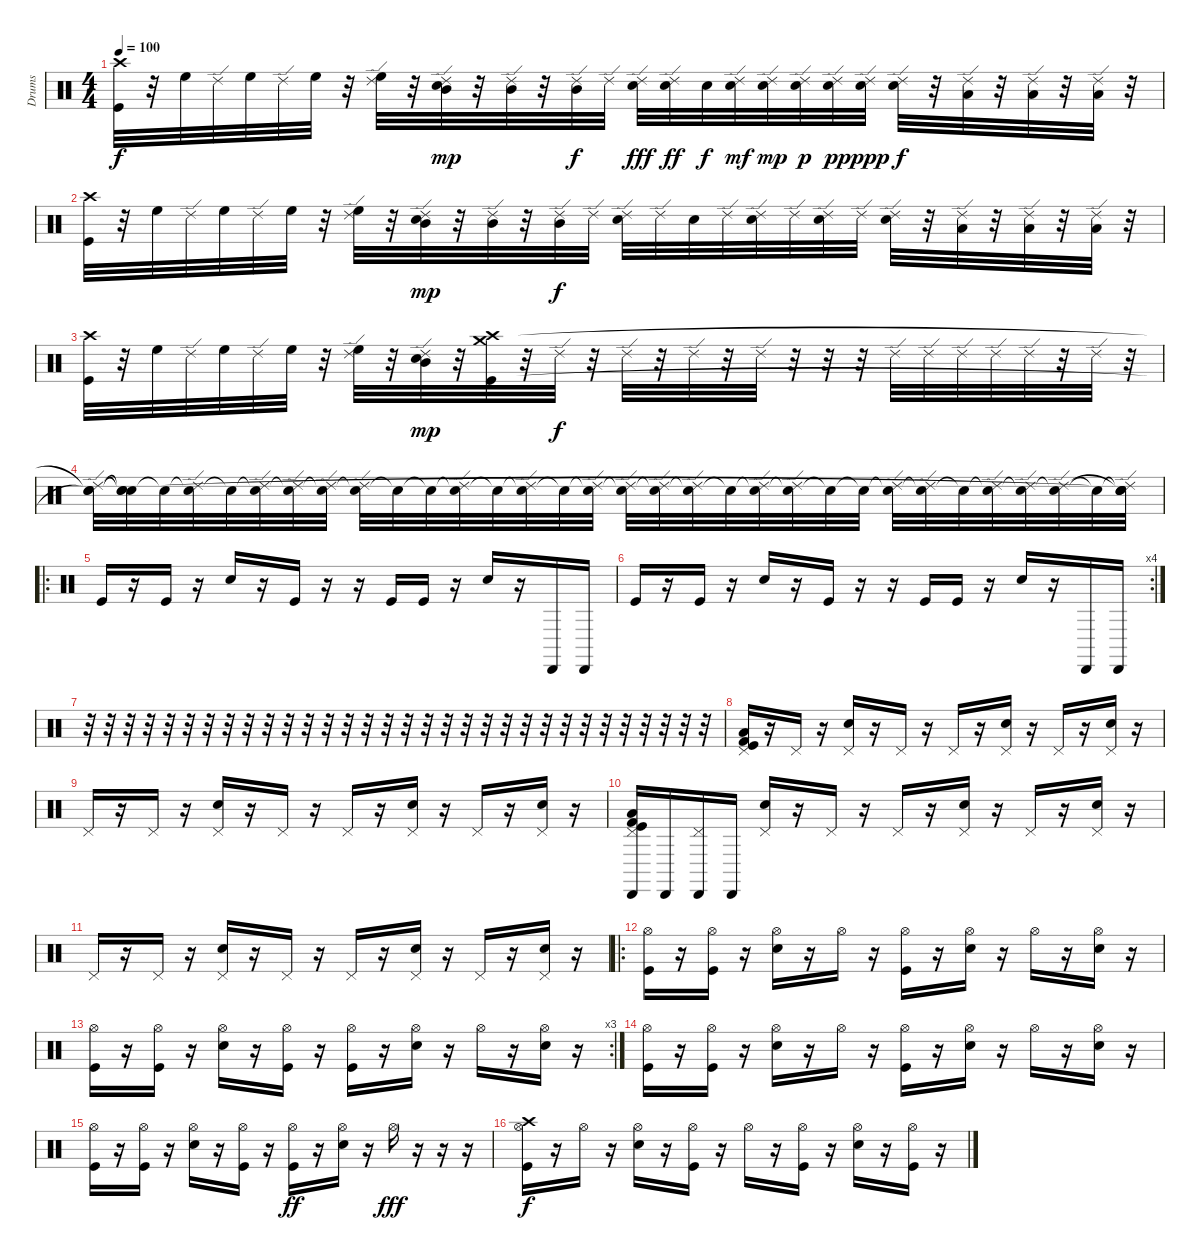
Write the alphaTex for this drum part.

\track ("Drums" "Drums") {instrument percussion}
\staff {score}
\articulation defaults
\ts (4 4)
\tempo 100
\clef neutral
\ks c
("Crash high (hit)" "Kick (hit)").32{dy f} r.32 "High Floor Tom (hit)".32 "Ride (edge) 2".32 "High Floor Tom (hit)".32 "Ride (edge) 2".32 "High Floor Tom (hit)".32 r.32 ("Ride (edge) 2" "High Floor Tom (hit)").32 r.32 ("Ride (edge) 2" "Electric Snare (hit)" "Mid Tom (hit)").32{dy mp} r.32 ("Ride (edge) 2" "Mid Tom (hit)").32 r.32 ("Ride (edge) 2" "Mid Tom (hit)").32{dy f} "Ride (edge) 2".32 ("Ride (edge) 2" "Electric Snare (hit)").32{dy fff} ("Ride (edge) 2" "Electric Snare (hit)").32{dy ff} "Electric Snare (hit)".32{dy f} ("Ride (edge) 2" "Electric Snare (hit)").32{dy mf} ("Ride (edge) 2" "Electric Snare (hit)").32{dy mp} ("Ride (edge) 2" "Electric Snare (hit)").32{dy p} ("Ride (edge) 2" "Electric Snare (hit)").32{dy pp} ("Ride (edge) 2" "Electric Snare (hit)").32{dy ppp} ("Ride (edge) 2" "Electric Snare (hit)").32{dy f} r.32 ("Ride (edge) 2" "Low Tom (hit)").32 r.32 ("Ride (edge) 2" "Low Tom (hit)").32 r.32 ("Ride (edge) 2" "Low Tom (hit)").32 r.32 |
("Crash high (hit)" "Kick (hit)").32 r.32 "High Floor Tom (hit)".32 "Ride (edge) 2".32 "High Floor Tom (hit)".32 "Ride (edge) 2".32 "High Floor Tom (hit)".32 r.32 ("Ride (edge) 2" "High Floor Tom (hit)").32 r.32 ("Ride (edge) 2" "Electric Snare (hit)" "Mid Tom (hit)").32{dy mp} r.32 ("Ride (edge) 2" "Mid Tom (hit)").32 r.32 ("Ride (edge) 2" "Mid Tom (hit)").32{dy f} "Ride (edge) 2".32 ("Ride (edge) 2" "Electric Snare (hit)").32 "Ride (edge) 2".32 "Electric Snare (hit)".32 "Ride (edge) 2".32 ("Ride (edge) 2" "Electric Snare (hit)").32 "Ride (edge) 2".32 ("Ride (edge) 2" "Electric Snare (hit)").32 "Ride (edge) 2".32 ("Ride (edge) 2" "Electric Snare (hit)").32 r.32 ("Ride (edge) 2" "Low Tom (hit)").32 r.32 ("Ride (edge) 2" "Low Tom (hit)").32 r.32 ("Ride (edge) 2" "Low Tom (hit)").32 r.32 |
("Crash high (hit)" "Kick (hit)").32 r.32 "High Floor Tom (hit)".32 "Ride (edge) 2".32 "High Floor Tom (hit)".32 "Ride (edge) 2".32 "High Floor Tom (hit)".32 r.32 ("Ride (edge) 2" "High Floor Tom (hit)").32 r.32 ("Ride (edge) 2" "Electric Snare (hit)" "Mid Tom (hit)").32{dy mp} r.32 ("Crash high (hit)" "Crash medium (hit)" "Kick (hit)").32 r.32 "Ride (edge) 2".32{dy f} r.32 "Ride (edge) 2".32 r.32 "Ride (edge) 2".32 r.32 "Ride (edge) 2".32 r.32 r.32 r.32 "Ride (edge) 2".32 "Ride (edge) 2".32 "Ride (edge) 2".32 "Ride (edge) 2".32 "Ride (edge) 2".32 r.32 "Ride (edge) 2".32 r.32 |
("Ride (edge) 2" "Snare (hit)"{t} "Snare (hit)"{t}).32 ("Snare (hit)"{t} "Snare (hit)"{t} "Snare (hit)"{t}).32 "Snare (hit)"{t}.32 ("Snare (hit)"{t} "Ride (edge) 2").32 "Snare (hit)"{t}.32 ("Snare (hit)"{t} "Ride (edge) 2").32 ("Snare (hit)"{t} "Ride (edge) 2").32 ("Snare (hit)"{t} "Ride (edge) 2").32 ("Snare (hit)"{t} "Ride (edge) 2").32 "Snare (hit)"{t}.32 "Snare (hit)"{t}.32 ("Snare (hit)"{t} "Ride (edge) 2").32 "Snare (hit)"{t}.32 ("Snare (hit)"{t} "Ride (edge) 2").32 "Snare (hit)"{t}.32 ("Snare (hit)"{t} "Ride (edge) 2").32 ("Snare (hit)"{t} "Ride (edge) 2").32 ("Snare (hit)"{t} "Ride (edge) 2").32 ("Snare (hit)"{t} "Ride (edge) 2").32 "Snare (hit)"{t}.32 ("Snare (hit)"{t} "Ride (edge) 2").32 ("Snare (hit)"{t} "Ride (edge) 2").32 "Snare (hit)"{t}.32 "Snare (hit)"{t}.32 ("Snare (hit)"{t} "Ride (edge) 2").32 ("Snare (hit)"{t} "Ride (edge) 2").32 "Snare (hit)"{t}.32 ("Snare (hit)"{t} "Ride (edge) 2").32 ("Snare (hit)"{t} "Ride (edge) 2").32 ("Snare (hit)"{t} "Ride (edge) 2").32 "Snare (hit)"{t}.32 ("Snare (hit)"{t} "Snare (hit)"{t} "Snare (hit)"{t} "Ride (edge) 2").32 |
\ro "Kick (hit)".16{volume 13}
r.16 "Kick (hit)".16 r.16 "Electric Snare (hit)".16 r.16 "Kick (hit)".16 r.16 r.16 "Kick (hit)".16 "Kick (hit)".16 r.16 "Electric Snare (hit)".16 r.16 "Cabasa (hit)".16 "Cabasa (hit)".16 |
\rc 4 "Kick (hit)".16
r.16 "Kick (hit)".16 r.16 "Electric Snare (hit)".16 r.16 "Kick (hit)".16 r.16 r.16 "Kick (hit)".16 "Kick (hit)".16 r.16 "Electric Snare (hit)".16 r.16 "Cabasa (hit)".16 "Cabasa (hit)".16 |
r.32 r.32 r.32 r.32 r.32 r.32 r.32 r.32 r.32 r.32 r.32 r.32 r.32 r.32 r.32 r.32 r.32 r.32 r.32 r.32 r.32 r.32 r.32 r.32 r.32 r.32 r.32 r.32 r.32 r.32 r.32 r.32 |
("Kick (hit)" "Kick (hit) 2" "Low Tom (hit)" "Pedal Hi-Hat (hit)").16 r.16 "Pedal Hi-Hat (hit)".16 r.16 ("Electric Snare (hit)" "Pedal Hi-Hat (hit)").16 r.16 "Pedal Hi-Hat (hit)".16 r.16 "Pedal Hi-Hat (hit)".16 r.16 ("Electric Snare (hit)" "Pedal Hi-Hat (hit)").16 r.16 "Pedal Hi-Hat (hit)".16 r.16 ("Electric Snare (hit)" "Pedal Hi-Hat (hit)").16 r.16 |
"Pedal Hi-Hat (hit)".16 r.16 "Pedal Hi-Hat (hit)".16 r.16 ("Electric Snare (hit)" "Pedal Hi-Hat (hit)").16 r.16 "Pedal Hi-Hat (hit)".16 r.16 "Pedal Hi-Hat (hit)".16 r.16 ("Electric Snare (hit)" "Pedal Hi-Hat (hit)").16 r.16 "Pedal Hi-Hat (hit)".16 r.16 ("Electric Snare (hit)" "Pedal Hi-Hat (hit)").16 r.16 |
("Kick (hit)" "Kick (hit) 2" "Low Tom (hit)" "Cabasa (hit)" "Pedal Hi-Hat (hit)").16 "Cabasa (hit)".16 ("Cabasa (hit)" "Pedal Hi-Hat (hit)").16 "Cabasa (hit)".16 ("Electric Snare (hit)" "Pedal Hi-Hat (hit)").16 r.16 "Pedal Hi-Hat (hit)".16 r.16 "Pedal Hi-Hat (hit)".16 r.16 ("Electric Snare (hit)" "Pedal Hi-Hat (hit)").16 r.16 "Pedal Hi-Hat (hit)".16 r.16 ("Electric Snare (hit)" "Pedal Hi-Hat (hit)").16 r.16 |
"Pedal Hi-Hat (hit)".16 r.16 "Pedal Hi-Hat (hit)".16 r.16 ("Electric Snare (hit)" "Pedal Hi-Hat (hit)").16 r.16 "Pedal Hi-Hat (hit)".16 r.16 "Pedal Hi-Hat (hit)".16 r.16 ("Electric Snare (hit)" "Pedal Hi-Hat (hit)").16 r.16 "Pedal Hi-Hat (hit)".16 r.16 ("Electric Snare (hit)" "Pedal Hi-Hat (hit)").16 r.16 |
\ro
("Kick (hit)" "Hi-Hat (open)").16{volume 11} r.16 ("Kick (hit)" "Hi-Hat (open)").16 r.16 ("Electric Snare (hit)" "Hi-Hat (open)").16 r.16 "Hi-Hat (open)".16 r.16 ("Kick (hit)" "Hi-Hat (open)").16 r.16 ("Electric Snare (hit)" "Hi-Hat (open)").16 r.16 "Hi-Hat (open)".16 r.16 ("Electric Snare (hit)" "Hi-Hat (open)").16 r.16 |
\rc 3
("Kick (hit)" "Hi-Hat (open)").16{volume 11} r.16 ("Kick (hit)" "Hi-Hat (open)").16 r.16 ("Electric Snare (hit)" "Hi-Hat (open)").16 r.16 ("Kick (hit)" "Hi-Hat (open)").16 r.16 ("Kick (hit)" "Hi-Hat (open)").16 r.16 ("Electric Snare (hit)" "Hi-Hat (open)").16 r.16 "Hi-Hat (open)".16 r.16 ("Electric Snare (hit)" "Hi-Hat (open)").16 r.16 |
("Kick (hit)" "Hi-Hat (open)").16{volume 11} r.16 ("Kick (hit)" "Hi-Hat (open)").16 r.16 ("Electric Snare (hit)" "Hi-Hat (open)").16 r.16 "Hi-Hat (open)".16 r.16 ("Kick (hit)" "Hi-Hat (open)").16 r.16 ("Electric Snare (hit)" "Hi-Hat (open)").16 r.16 "Hi-Hat (open)".16 r.16 ("Electric Snare (hit)" "Hi-Hat (open)").16 r.16 |
("Kick (hit)" "Hi-Hat (open)").16{volume 11} r.16 ("Kick (hit)" "Hi-Hat (open)").16 r.16 ("Electric Snare (hit)" "Hi-Hat (open)").16 r.16 ("Kick (hit)" "Hi-Hat (open)").16 r.16 ("Kick (hit)" "Hi-Hat (open)").16{dy ff} r.16 ("Electric Snare (hit)" "Hi-Hat (open)").16 r.16 "Hi-Hat (open)".16{dy fff} r.16 r.16 r.16 |
("Crash high (hit)" "Kick (hit)" "Hi-Hat (open)").16{dy f volume 13} r.16 "Hi-Hat (open)".16 r.16 ("Electric Snare (hit)" "Hi-Hat (open)").16 r.16 ("Kick (hit)" "Hi-Hat (open)").16 r.16 "Hi-Hat (open)".16 r.16 ("Kick (hit)" "Hi-Hat (open)").16 r.16 ("Electric Snare (hit)" "Hi-Hat (open)").16 r.16 ("Kick (hit)" "Hi-Hat (open)").16 r.16
